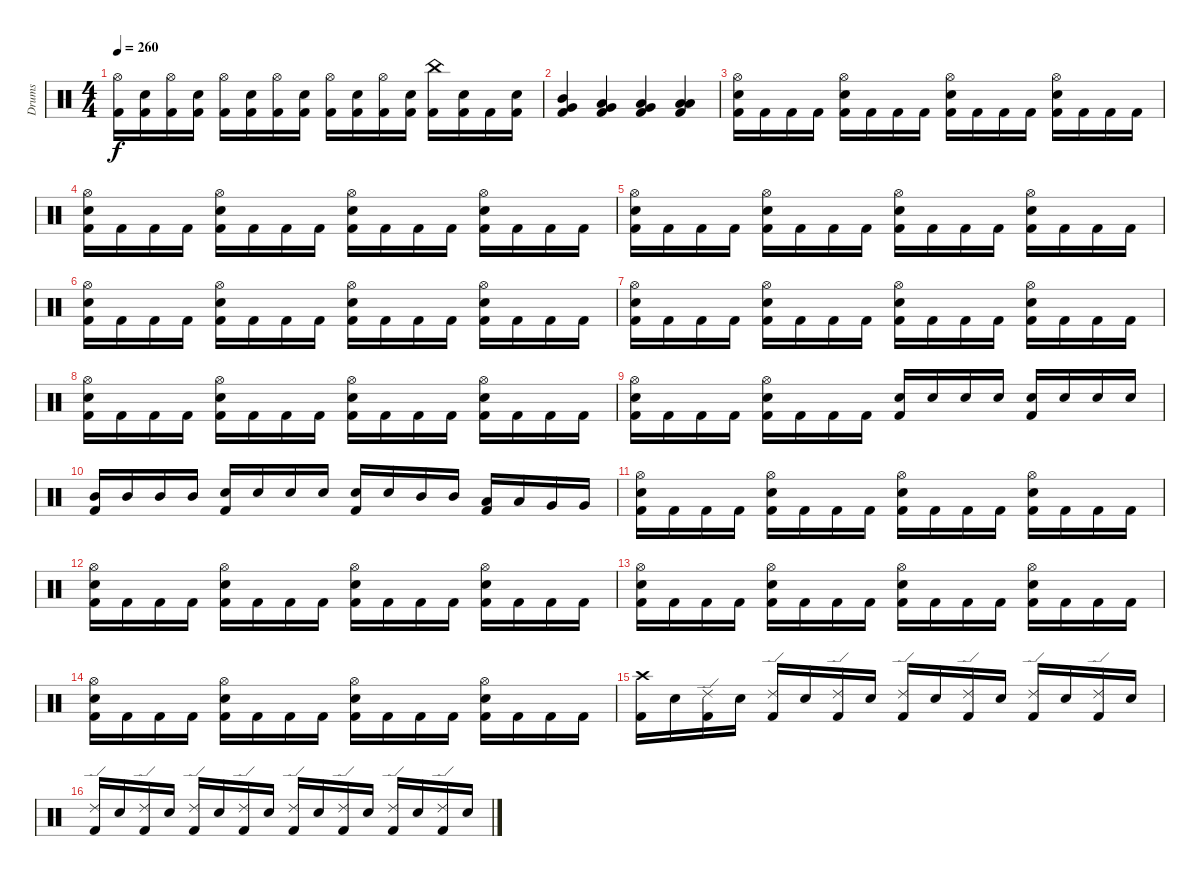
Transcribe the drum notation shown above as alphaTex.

\track ("Drums" "Drums") {instrument percussion}
\staff {score}
\articulation defaults
\ts (4 4)
\tempo 260
\clef neutral
\ks c
("Hi-Hat (open)" "Kick (hit) 2").16{dy f} ("Snare (hit) 2" "Kick (hit) 2").16 ("Hi-Hat (open)" "Kick (hit) 2").16 ("Snare (hit) 2" "Kick (hit) 2").16 ("Hi-Hat (open)" "Kick (hit) 2").16 ("Snare (hit) 2" "Kick (hit) 2").16 ("Hi-Hat (open)" "Kick (hit) 2").16 ("Snare (hit) 2" "Kick (hit) 2").16 ("Hi-Hat (open)" "Kick (hit) 2").16 ("Snare (hit) 2" "Kick (hit) 2").16 ("Hi-Hat (open)" "Kick (hit) 2").16 ("Snare (hit) 2" "Kick (hit) 2").16 ("China (hit)" "Kick (hit) 2").16 ("Snare (hit) 2" "Kick (hit) 2").16 "Kick (hit) 2".16 ("Snare (hit) 2" "Kick (hit) 2").16 |
("Mid Tom (hit)" "Very Low Tom (hit)" "Kick (hit) 2").4 ("Low Tom (hit)" "Very Low Tom (hit)" "Kick (hit) 2").4 ("Very Low Tom (hit)" "Low Floor Tom (hit)" "Kick (hit) 2").4 ("Low Floor Tom (hit)" "Low Floor Tom (hit)" "Kick (hit) 2").4 |
("Hi-Hat (open)" "Snare (hit) 2" "Kick (hit) 2").16 "Kick (hit) 2".16 "Kick (hit) 2".16 "Kick (hit) 2".16 ("Hi-Hat (open)" "Snare (hit) 2" "Kick (hit) 2").16 "Kick (hit) 2".16 "Kick (hit) 2".16 "Kick (hit) 2".16 ("Hi-Hat (open)" "Snare (hit) 2" "Kick (hit) 2").16 "Kick (hit) 2".16 "Kick (hit) 2".16 "Kick (hit) 2".16 ("Hi-Hat (open)" "Snare (hit) 2" "Kick (hit) 2").16 "Kick (hit) 2".16 "Kick (hit) 2".16 "Kick (hit) 2".16 |
("Hi-Hat (open)" "Snare (hit) 2" "Kick (hit) 2").16 "Kick (hit) 2".16 "Kick (hit) 2".16 "Kick (hit) 2".16 ("Hi-Hat (open)" "Snare (hit) 2" "Kick (hit) 2").16 "Kick (hit) 2".16 "Kick (hit) 2".16 "Kick (hit) 2".16 ("Hi-Hat (open)" "Snare (hit) 2" "Kick (hit) 2").16 "Kick (hit) 2".16 "Kick (hit) 2".16 "Kick (hit) 2".16 ("Hi-Hat (open)" "Snare (hit) 2" "Kick (hit) 2").16 "Kick (hit) 2".16 "Kick (hit) 2".16 "Kick (hit) 2".16 |
("Hi-Hat (open)" "Snare (hit) 2" "Kick (hit) 2").16 "Kick (hit) 2".16 "Kick (hit) 2".16 "Kick (hit) 2".16 ("Hi-Hat (open)" "Snare (hit) 2" "Kick (hit) 2").16 "Kick (hit) 2".16 "Kick (hit) 2".16 "Kick (hit) 2".16 ("Hi-Hat (open)" "Snare (hit) 2" "Kick (hit) 2").16 "Kick (hit) 2".16 "Kick (hit) 2".16 "Kick (hit) 2".16 ("Hi-Hat (open)" "Snare (hit) 2" "Kick (hit) 2").16 "Kick (hit) 2".16 "Kick (hit) 2".16 "Kick (hit) 2".16 |
("Hi-Hat (open)" "Snare (hit) 2" "Kick (hit) 2").16 "Kick (hit) 2".16 "Kick (hit) 2".16 "Kick (hit) 2".16 ("Hi-Hat (open)" "Snare (hit) 2" "Kick (hit) 2").16 "Kick (hit) 2".16 "Kick (hit) 2".16 "Kick (hit) 2".16 ("Hi-Hat (open)" "Snare (hit) 2" "Kick (hit) 2").16 "Kick (hit) 2".16 "Kick (hit) 2".16 "Kick (hit) 2".16 ("Hi-Hat (open)" "Snare (hit) 2" "Kick (hit) 2").16 "Kick (hit) 2".16 "Kick (hit) 2".16 "Kick (hit) 2".16 |
("Hi-Hat (open)" "Snare (hit) 2" "Kick (hit) 2").16 "Kick (hit) 2".16 "Kick (hit) 2".16 "Kick (hit) 2".16 ("Hi-Hat (open)" "Snare (hit) 2" "Kick (hit) 2").16 "Kick (hit) 2".16 "Kick (hit) 2".16 "Kick (hit) 2".16 ("Hi-Hat (open)" "Snare (hit) 2" "Kick (hit) 2").16 "Kick (hit) 2".16 "Kick (hit) 2".16 "Kick (hit) 2".16 ("Hi-Hat (open)" "Snare (hit) 2" "Kick (hit) 2").16 "Kick (hit) 2".16 "Kick (hit) 2".16 "Kick (hit) 2".16 |
("Hi-Hat (open)" "Snare (hit) 2" "Kick (hit) 2").16 "Kick (hit) 2".16 "Kick (hit) 2".16 "Kick (hit) 2".16 ("Hi-Hat (open)" "Snare (hit) 2" "Kick (hit) 2").16 "Kick (hit) 2".16 "Kick (hit) 2".16 "Kick (hit) 2".16 ("Hi-Hat (open)" "Snare (hit) 2" "Kick (hit) 2").16 "Kick (hit) 2".16 "Kick (hit) 2".16 "Kick (hit) 2".16 ("Hi-Hat (open)" "Snare (hit) 2" "Kick (hit) 2").16 "Kick (hit) 2".16 "Kick (hit) 2".16 "Kick (hit) 2".16 |
("Hi-Hat (open)" "Snare (hit) 2" "Kick (hit) 2").16 "Kick (hit) 2".16 "Kick (hit) 2".16 "Kick (hit) 2".16 ("Hi-Hat (open)" "Snare (hit) 2" "Kick (hit) 2").16 "Kick (hit) 2".16 "Kick (hit) 2".16 "Kick (hit) 2".16 ("Snare (hit) 2" "Kick (hit) 2").16 "Snare (hit) 2".16 "Snare (hit) 2".16 "Snare (hit) 2".16 ("Snare (hit) 2" "Kick (hit) 2").16 "Snare (hit) 2".16 "Snare (hit) 2".16 "Snare (hit) 2".16 |
("Mid Tom (hit)" "Kick (hit) 2").16 "Mid Tom (hit)".16 "Mid Tom (hit)".16 "Mid Tom (hit)".16 ("Snare (hit) 2" "Kick (hit) 2").16 "Snare (hit) 2".16 "Snare (hit) 2".16 "Snare (hit) 2".16 ("Snare (hit) 2" "Kick (hit) 2").16 "Snare (hit) 2".16 "Mid Tom (hit)".16 "Mid Tom (hit)".16 ("Low Tom (hit)" "Kick (hit) 2").16 "Low Tom (hit)".16 "Very Low Tom (hit)".16 "Very Low Tom (hit)".16 |
("Hi-Hat (open)" "Snare (hit) 2" "Kick (hit) 2").16 "Kick (hit) 2".16 "Kick (hit) 2".16 "Kick (hit) 2".16 ("Hi-Hat (open)" "Snare (hit) 2" "Kick (hit) 2").16 "Kick (hit) 2".16 "Kick (hit) 2".16 "Kick (hit) 2".16 ("Hi-Hat (open)" "Snare (hit) 2" "Kick (hit) 2").16 "Kick (hit) 2".16 "Kick (hit) 2".16 "Kick (hit) 2".16 ("Hi-Hat (open)" "Snare (hit) 2" "Kick (hit) 2").16 "Kick (hit) 2".16 "Kick (hit) 2".16 "Kick (hit) 2".16 |
("Hi-Hat (open)" "Snare (hit) 2" "Kick (hit) 2").16 "Kick (hit) 2".16 "Kick (hit) 2".16 "Kick (hit) 2".16 ("Hi-Hat (open)" "Snare (hit) 2" "Kick (hit) 2").16 "Kick (hit) 2".16 "Kick (hit) 2".16 "Kick (hit) 2".16 ("Hi-Hat (open)" "Snare (hit) 2" "Kick (hit) 2").16 "Kick (hit) 2".16 "Kick (hit) 2".16 "Kick (hit) 2".16 ("Hi-Hat (open)" "Snare (hit) 2" "Kick (hit) 2").16 "Kick (hit) 2".16 "Kick (hit) 2".16 "Kick (hit) 2".16 |
("Hi-Hat (open)" "Snare (hit) 2" "Kick (hit) 2").16 "Kick (hit) 2".16 "Kick (hit) 2".16 "Kick (hit) 2".16 ("Hi-Hat (open)" "Snare (hit) 2" "Kick (hit) 2").16 "Kick (hit) 2".16 "Kick (hit) 2".16 "Kick (hit) 2".16 ("Hi-Hat (open)" "Snare (hit) 2" "Kick (hit) 2").16 "Kick (hit) 2".16 "Kick (hit) 2".16 "Kick (hit) 2".16 ("Hi-Hat (open)" "Snare (hit) 2" "Kick (hit) 2").16 "Kick (hit) 2".16 "Kick (hit) 2".16 "Kick (hit) 2".16 |
("Hi-Hat (open)" "Snare (hit) 2" "Kick (hit) 2").16 "Kick (hit) 2".16 "Kick (hit) 2".16 "Kick (hit) 2".16 ("Hi-Hat (open)" "Snare (hit) 2" "Kick (hit) 2").16 "Kick (hit) 2".16 "Kick (hit) 2".16 "Kick (hit) 2".16 ("Hi-Hat (open)" "Snare (hit) 2" "Kick (hit) 2").16 "Kick (hit) 2".16 "Kick (hit) 2".16 "Kick (hit) 2".16 ("Hi-Hat (open)" "Snare (hit) 2" "Kick (hit) 2").16 "Kick (hit) 2".16 "Kick (hit) 2".16 "Kick (hit) 2".16 |
("Crash high (hit)" "Kick (hit) 2").16 "Snare (hit) 2".16 ("Ride (edge) 2" "Kick (hit) 2").16 "Snare (hit) 2".16 ("Ride (edge) 2" "Kick (hit) 2").16 "Snare (hit) 2".16 ("Ride (edge) 2" "Kick (hit) 2").16 "Snare (hit) 2".16 ("Ride (edge) 2" "Kick (hit) 2").16 "Snare (hit) 2".16 ("Ride (edge) 2" "Kick (hit) 2").16 "Snare (hit) 2".16 ("Ride (edge) 2" "Kick (hit) 2").16 "Snare (hit) 2".16 ("Ride (edge) 2" "Kick (hit) 2").16 "Snare (hit) 2".16 |
("Ride (edge) 2" "Kick (hit) 2").16 "Snare (hit) 2".16 ("Ride (edge) 2" "Kick (hit) 2").16 "Snare (hit) 2".16 ("Ride (edge) 2" "Kick (hit) 2").16 "Snare (hit) 2".16 ("Ride (edge) 2" "Kick (hit) 2").16 "Snare (hit) 2".16 ("Ride (edge) 2" "Kick (hit) 2").16 "Snare (hit) 2".16 ("Ride (edge) 2" "Kick (hit) 2").16 "Snare (hit) 2".16 ("Ride (edge) 2" "Kick (hit) 2").16 "Snare (hit) 2".16 ("Ride (edge) 2" "Kick (hit) 2").16 "Snare (hit) 2".16
